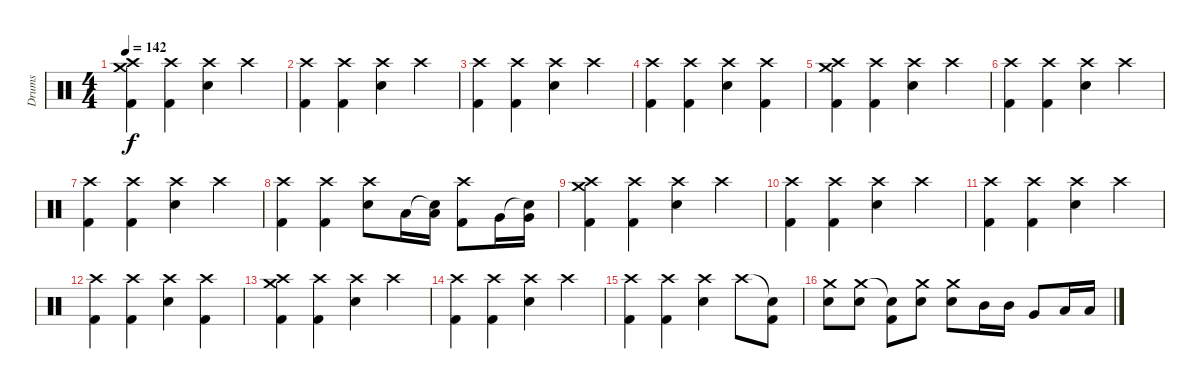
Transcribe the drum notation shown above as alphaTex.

\track ("Drums" "Drums") {instrument percussion}
\staff {score}
\articulation defaults
\ts (4 4)
\tempo 142
\clef neutral
\ks c
("Crash high (hit)" "Crash medium (hit)" "Kick (hit) 2").4{dy f} ("Crash high (hit)" "Kick (hit) 2").4 ("Crash high (hit)" "Snare (hit) 2").4 "Crash high (hit)".4 |
("Crash high (hit)" "Kick (hit) 2").4 ("Crash high (hit)" "Kick (hit) 2").4 ("Crash high (hit)" "Snare (hit) 2").4 "Crash high (hit)".4 |
("Crash high (hit)" "Kick (hit) 2").4 ("Crash high (hit)" "Kick (hit) 2").4 ("Crash high (hit)" "Snare (hit) 2").4 "Crash high (hit)".4 |
("Crash high (hit)" "Kick (hit) 2").4 ("Crash high (hit)" "Kick (hit) 2").4 ("Crash high (hit)" "Snare (hit) 2").4 ("Crash high (hit)" "Kick (hit) 2").4 |
("Crash high (hit)" "Crash medium (hit)" "Kick (hit) 2").4 ("Crash high (hit)" "Kick (hit) 2").4 ("Crash high (hit)" "Snare (hit) 2").4 "Crash high (hit)".4 |
("Crash high (hit)" "Kick (hit) 2").4 ("Crash high (hit)" "Kick (hit) 2").4 ("Crash high (hit)" "Snare (hit) 2").4 "Crash high (hit)".4 |
("Crash high (hit)" "Kick (hit) 2").4 ("Crash high (hit)" "Kick (hit) 2").4 ("Crash high (hit)" "Snare (hit) 2").4 "Crash high (hit)".4 |
("Crash high (hit)" "Kick (hit) 2").4 ("Crash high (hit)" "Kick (hit) 2").4 ("Crash high (hit)" "Snare (hit) 2").8 "Low Tom (hit)".16 ("Snare (hit)"{t} "Low Tom (hit)").16 ("Crash high (hit)" "Kick (hit) 2").8 "Very Low Tom (hit)".16 ("Snare (hit)"{t} "Very Low Tom (hit)").16 |
("Crash high (hit)" "Crash medium (hit)" "Kick (hit) 2").4 ("Crash high (hit)" "Kick (hit) 2").4 ("Crash high (hit)" "Snare (hit) 2").4 "Crash high (hit)".4 |
("Crash high (hit)" "Kick (hit) 2").4 ("Crash high (hit)" "Kick (hit) 2").4 ("Crash high (hit)" "Snare (hit) 2").4 "Crash high (hit)".4 |
("Crash high (hit)" "Kick (hit) 2").4 ("Crash high (hit)" "Kick (hit) 2").4 ("Crash high (hit)" "Snare (hit) 2").4 "Crash high (hit)".4 |
("Crash high (hit)" "Kick (hit) 2").4 ("Crash high (hit)" "Kick (hit) 2").4 ("Crash high (hit)" "Snare (hit) 2").4 ("Crash high (hit)" "Kick (hit) 2").4 |
("Crash high (hit)" "Crash medium (hit)" "Kick (hit) 2").4 ("Crash high (hit)" "Kick (hit) 2").4 ("Crash high (hit)" "Snare (hit) 2").4 "Crash high (hit)".4 |
("Crash high (hit)" "Kick (hit) 2").4 ("Crash high (hit)" "Kick (hit) 2").4 ("Crash high (hit)" "Snare (hit) 2").4 "Crash high (hit)".4 |
("Crash high (hit)" "Kick (hit) 2").4 ("Crash high (hit)" "Kick (hit) 2").4 ("Crash high (hit)" "Snare (hit) 2").4 "Crash high (hit)".8 ("Snare (hit)"{t} "Kick (hit) 2").8 |
("Crash medium (hit)" "Snare (hit) 2").8 ("Crash medium (hit)" "Snare (hit) 2").8 ("Snare (hit)"{t} "Kick (hit) 2").8 ("Crash medium (hit)" "Snare (hit) 2").8 ("Crash medium (hit)" "Snare (hit) 2").8 "Mid Tom (hit)".16 "Mid Tom (hit)".16 "Very Low Tom (hit)".8 "Low Tom (hit)".16 "Low Tom (hit)".16
